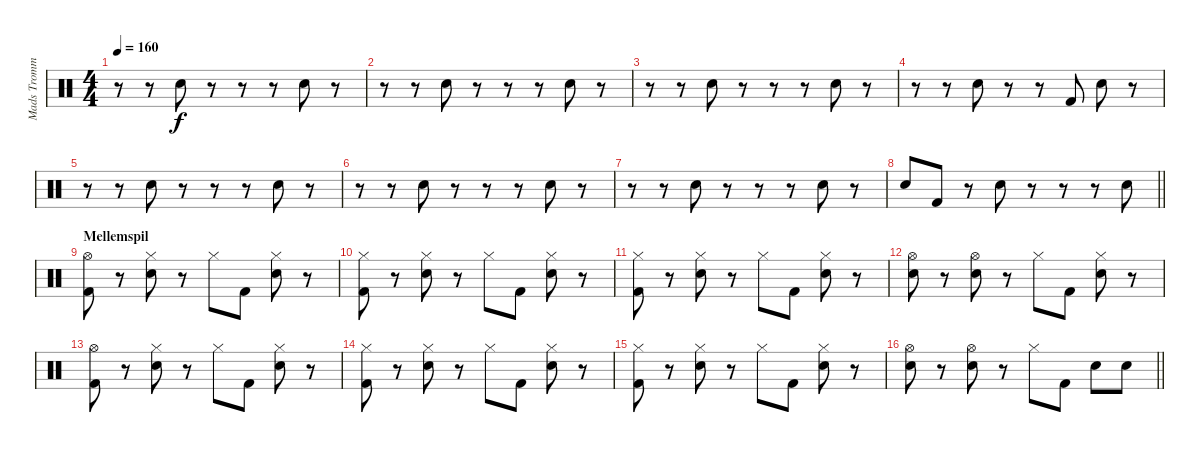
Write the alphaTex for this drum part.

\track ("Mads Trommer" "Mads Tromm") {instrument percussion}
\staff {score}
\articulation defaults
\ts (4 4)
\tempo 160
\clef neutral
\ks c
r.8{dy f} r.8 "Electric Snare (hit)".8 r.8 r.8 r.8 "Electric Snare (hit)".8 r.8 |
r.8 r.8 "Electric Snare (hit)".8 r.8 r.8 r.8 "Electric Snare (hit)".8 r.8 |
r.8 r.8 "Electric Snare (hit)".8 r.8 r.8 r.8 "Electric Snare (hit)".8 r.8 |
r.8 r.8 "Electric Snare (hit)".8 r.8 r.8 "Kick (hit) 2".8 "Electric Snare (hit)".8 r.8 |
r.8 r.8 "Electric Snare (hit)".8 r.8 r.8 r.8 "Electric Snare (hit)".8 r.8 |
r.8 r.8 "Electric Snare (hit)".8 r.8 r.8 r.8 "Electric Snare (hit)".8 r.8 |
r.8 r.8 "Electric Snare (hit)".8 r.8 r.8 r.8 "Electric Snare (hit)".8 r.8 |
\barLineRight lightlight "Electric Snare (hit)".8 "Kick (hit) 2".8
r.8 "Electric Snare (hit)".8 r.8 r.8 r.8 "Electric Snare (hit)".8 |
\section ("" "Mellemspil")
("Hi-Hat (open)" "Kick (hit) 2").8 r.8 ("Hi-Hat (closed)" "Electric Snare (hit)").8 r.8 "Hi-Hat (closed)".8 "Kick (hit) 2".8 ("Hi-Hat (closed)" "Electric Snare (hit)").8 r.8 |
("Hi-Hat (closed)" "Kick (hit) 2").8 r.8 ("Hi-Hat (closed)" "Electric Snare (hit)").8 r.8 "Hi-Hat (closed)".8 "Kick (hit) 2".8 ("Hi-Hat (closed)" "Electric Snare (hit)").8 r.8 |
("Hi-Hat (closed)" "Kick (hit) 2").8 r.8 ("Hi-Hat (closed)" "Electric Snare (hit)").8 r.8 "Hi-Hat (closed)".8 "Kick (hit) 2".8 ("Hi-Hat (closed)" "Electric Snare (hit)").8 r.8 |
("Hi-Hat (open)" "Electric Snare (hit)").8 r.8 ("Hi-Hat (open)" "Electric Snare (hit)").8 r.8 "Hi-Hat (closed)".8 "Kick (hit) 2".8 ("Hi-Hat (closed)" "Electric Snare (hit)").8 r.8 |
("Hi-Hat (open)" "Kick (hit) 2").8 r.8 ("Hi-Hat (closed)" "Electric Snare (hit)").8 r.8 "Hi-Hat (closed)".8 "Kick (hit) 2".8 ("Hi-Hat (closed)" "Electric Snare (hit)").8 r.8 |
("Hi-Hat (closed)" "Kick (hit) 2").8 r.8 ("Hi-Hat (closed)" "Electric Snare (hit)").8 r.8 "Hi-Hat (closed)".8 "Kick (hit) 2".8 ("Hi-Hat (closed)" "Electric Snare (hit)").8 r.8 |
("Hi-Hat (closed)" "Kick (hit) 2").8 r.8 ("Hi-Hat (closed)" "Electric Snare (hit)").8 r.8 "Hi-Hat (closed)".8 "Kick (hit) 2".8 ("Hi-Hat (closed)" "Electric Snare (hit)").8 r.8 |
\barLineRight lightlight
("Hi-Hat (open)" "Electric Snare (hit)").8 r.8 ("Hi-Hat (open)" "Electric Snare (hit)").8 r.8 "Hi-Hat (closed)".8 "Kick (hit) 2".8 "Electric Snare (hit)".8 "Electric Snare (hit)".8
